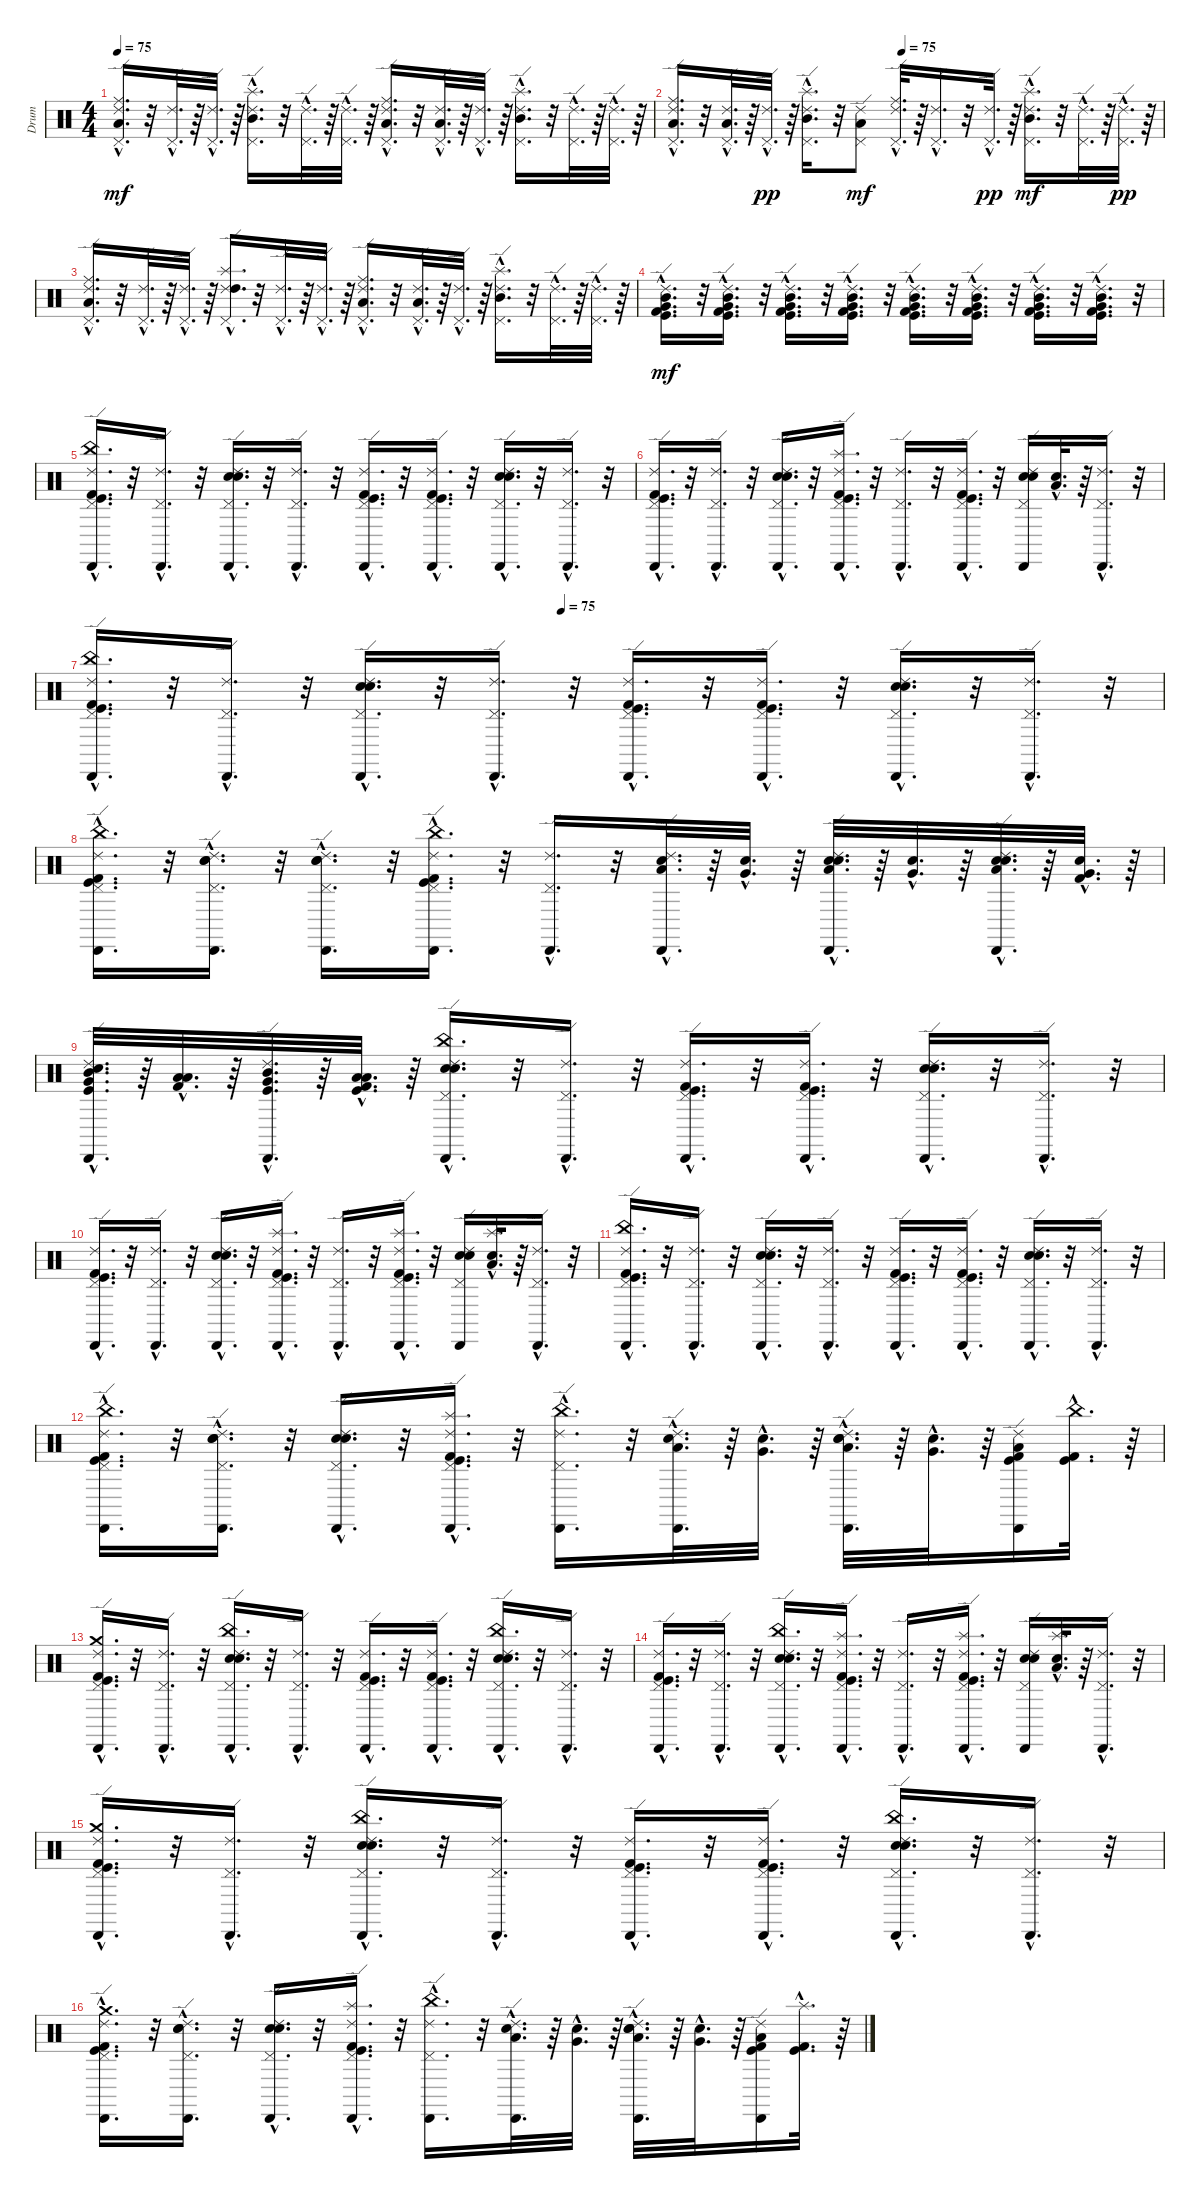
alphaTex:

\track ("Drum" "Drum") {instrument percussion}
\staff {score}
\articulation defaults
\ts (4 4)
\tempo 75
\clef neutral
\ks c
("Low Tom (hit)"{hac} "Pedal Hi-Hat (hit)"{hac} "Ride (edge) 2"{hac} "Ride (middle)"{hac}).16{d dy mf} r.32 ("Pedal Hi-Hat (hit)"{hac} "Ride (edge) 2"{hac}).32{d} r.64 ("Pedal Hi-Hat (hit)"{hac} "Ride (edge) 2"{hac}).32{d} r.64 ("Mid Tom (hit)"{hac} "Splash (hit)"{hac} "Pedal Hi-Hat (hit)"{hac} "Ride (edge) 2"{hac}).16{d} r.32 ("Pedal Hi-Hat (hit)"{hac} "Ride (edge) 2"{hac}).32{d} r.64 ("Pedal Hi-Hat (hit)"{hac} "Ride (edge) 2"{hac}).32{d} r.64 ("Low Tom (hit)"{hac} "Pedal Hi-Hat (hit)"{hac} "Ride (edge) 2"{hac} "Ride (middle)"{hac}).16{d} r.32 ("Low Tom (hit)"{hac} "Pedal Hi-Hat (hit)"{hac} "Ride (edge) 2"{hac}).32{d} r.64 ("Pedal Hi-Hat (hit)"{hac} "Ride (edge) 2"{hac}).32{d} r.64 ("Mid Tom (hit)"{hac} "Splash (hit)"{hac} "Pedal Hi-Hat (hit)"{hac} "Ride (edge) 2"{hac}).16{d} r.32 ("Pedal Hi-Hat (hit)"{hac} "Ride (edge) 2"{hac}).32{d} r.64 ("Pedal Hi-Hat (hit)"{hac} "Ride (edge) 2"{hac}).32{d} r.64 |
\tempo (75 0.46875)
("Low Tom (hit)"{hac} "Pedal Hi-Hat (hit)"{hac} "Ride (edge) 2"{hac} "Ride (middle)"{hac}).16{d} r.32 ("Pedal Hi-Hat (hit)"{hac} "Ride (edge) 2"{hac} "Low Tom (hit)"{hac}).32{d} r.64 ("Ride (edge) 2"{hac} "Pedal Hi-Hat (hit)"{hac}).32{d dy pp} r.64 ("Mid Tom (hit)"{hac} "Ride (edge) 2"{hac} "Pedal Hi-Hat (hit)"{hac} "Splash (hit)"{hac}).16{d} r.32 ("Pedal Hi-Hat (hit)" "Low Tom (hit)" "Ride (edge) 2").8{dy mf} ("Pedal Hi-Hat (hit)"{hac} "Ride (edge) 2"{hac} "Ride (middle)"{hac}).32{d} r.64 ("Pedal Hi-Hat (hit)"{hac} "Ride (edge) 2"{hac}).16{d} r.32 ("Ride (edge) 2"{hac} "Pedal Hi-Hat (hit)"{hac}).32{d dy pp} r.64 ("Pedal Hi-Hat (hit)"{hac} "Splash (hit)"{hac} "Mid Tom (hit)"{hac} "Ride (edge) 2"{hac}).16{d dy mf} r.32 ("Pedal Hi-Hat (hit)"{hac} "Ride (edge) 2"{hac}).32{d} r.64 ("Ride (edge) 2"{hac} "Pedal Hi-Hat (hit)"{hac}).32{d dy pp} r.64 |
("Ride (edge) 2"{hac} "Pedal Hi-Hat (hit)"{hac} "Low Tom (hit)"{hac} "Ride (middle)"{hac}).16{d} r.32 ("Ride (edge) 2"{hac} "Pedal Hi-Hat (hit)"{hac}).32{d} r.64 ("Ride (edge) 2"{hac} "Pedal Hi-Hat (hit)"{hac}).32{d} r.64 ("Ride (edge) 2"{hac} "Pedal Hi-Hat (hit)"{hac} "Splash (hit)"{hac} "High Tom (hit)"{hac}).16{d} r.32 ("Ride (edge) 2"{hac} "Pedal Hi-Hat (hit)"{hac}).32{d} r.64 ("Ride (edge) 2"{hac} "Pedal Hi-Hat (hit)"{hac}).32{d} r.64 ("Ride (edge) 2"{hac} "Pedal Hi-Hat (hit)"{hac} "Low Tom (hit)"{hac} "Ride (middle)"{hac}).16{d} r.32 ("Ride (edge) 2"{hac} "Pedal Hi-Hat (hit)"{hac} "Low Tom (hit)"{hac}).32{d} r.64 ("Ride (edge) 2"{hac} "Pedal Hi-Hat (hit)"{hac}).32{d} r.64 ("Ride (edge) 2"{hac} "Pedal Hi-Hat (hit)"{hac} "Splash (hit)"{hac} "Mid Tom (hit)"{hac}).16{d} r.32 ("Ride (edge) 2"{hac} "Pedal Hi-Hat (hit)"{hac}).32{d} r.64 ("Ride (edge) 2"{hac} "Pedal Hi-Hat (hit)"{hac}).32{d} r.64 |
("Ride (edge) 2"{hac} "Kick (hit)"{hac} "Mid Tom (hit)"{hac} "Kick (hit) 2"{hac} "Very Low Tom (hit)"{hac}).16{d dy mf} r.32 ("Mid Tom (hit)"{hac} "Ride (edge) 2"{hac} "Very Low Tom (hit)"{hac} "Kick (hit)"{hac} "Kick (hit) 2"{hac}).16{d} r.32 ("Kick (hit) 2"{hac} "Kick (hit)"{hac} "Very Low Tom (hit)"{hac} "Mid Tom (hit)"{hac} "Ride (edge) 2"{hac}).16{d} r.32 ("Kick (hit)"{hac} "Ride (edge) 2"{hac} "Mid Tom (hit)"{hac} "Very Low Tom (hit)"{hac} "Kick (hit) 2"{hac}).16{d} r.32 ("Mid Tom (hit)"{hac} "Very Low Tom (hit)"{hac} "Kick (hit) 2"{hac} "Kick (hit)"{hac} "Ride (edge) 2"{hac}).16{d} r.32 ("Kick (hit)"{hac} "Kick (hit) 2"{hac} "Ride (edge) 2"{hac} "Mid Tom (hit)"{hac} "Very Low Tom (hit)"{hac}).16{d} r.32 ("Ride (edge) 2"{hac} "Very Low Tom (hit)"{hac} "Mid Tom (hit)"{hac} "Kick (hit)"{hac} "Kick (hit) 2"{hac}).16{d} r.32 ("Kick (hit)"{hac} "Ride (edge) 2"{hac} "Kick (hit) 2"{hac} "Very Low Tom (hit)"{hac} "Mid Tom (hit)"{hac}).16{d} r.32 |
("Ride (edge) 2"{hac} "Cabasa (hit)"{hac} "Pedal Hi-Hat (hit)"{hac} "Kick (hit)"{hac} "Kick (hit) 2"{hac} "China (hit)"{hac}).16{d} r.32 ("Ride (edge) 2"{hac} "Cabasa (hit)"{hac} "Pedal Hi-Hat (hit)"{hac}).16{d} r.32 ("Ride (edge) 2"{hac} "Cabasa (hit)"{hac} "Pedal Hi-Hat (hit)"{hac} "Snare (hit) 2"{hac} "Electric Snare (hit)"{hac}).16{d} r.32 ("Ride (edge) 2"{hac} "Cabasa (hit)"{hac} "Pedal Hi-Hat (hit)"{hac}).16{d} r.32 ("Ride (edge) 2"{hac} "Cabasa (hit)"{hac} "Pedal Hi-Hat (hit)"{hac} "Kick (hit)"{hac} "Kick (hit) 2"{hac}).16{d} r.32 ("Ride (edge) 2"{hac} "Cabasa (hit)"{hac} "Pedal Hi-Hat (hit)"{hac} "Kick (hit)"{hac} "Kick (hit) 2"{hac}).16{d} r.32 ("Ride (edge) 2"{hac} "Cabasa (hit)"{hac} "Pedal Hi-Hat (hit)"{hac} "Snare (hit) 2"{hac} "Electric Snare (hit)"{hac}).16{d} r.32 ("Ride (edge) 2"{hac} "Cabasa (hit)"{hac} "Pedal Hi-Hat (hit)"{hac}).16{d} r.32 |
("Kick (hit) 2"{hac} "Kick (hit)"{hac} "Pedal Hi-Hat (hit)"{hac} "Cabasa (hit)"{hac} "Ride (edge) 2"{hac}).16{d} r.32 ("Pedal Hi-Hat (hit)"{hac} "Cabasa (hit)"{hac} "Ride (edge) 2"{hac}).16{d} r.32 ("Electric Snare (hit)"{hac} "Snare (hit) 2"{hac} "Pedal Hi-Hat (hit)"{hac} "Cabasa (hit)"{hac} "Ride (edge) 2"{hac}).16{d} r.32 ("Pedal Hi-Hat (hit)"{hac} "Cabasa (hit)"{hac} "Ride (edge) 2"{hac} "Kick (hit) 2"{hac} "Kick (hit)"{hac} "Splash (hit)"{hac}).16{d} r.32 ("Pedal Hi-Hat (hit)"{hac} "Cabasa (hit)"{hac} "Ride (edge) 2"{hac}).16{d} r.32 ("Kick (hit) 2"{hac} "Kick (hit)"{hac} "Pedal Hi-Hat (hit)"{hac} "Cabasa (hit)"{hac} "Ride (edge) 2"{hac}).16{d} r.32 ("Electric Snare (hit)" "Snare (hit) 2" "Pedal Hi-Hat (hit)" "Cabasa (hit)" "Ride (edge) 2").16 ("Electric Snare (hit)"{hac} "Low Tom (hit)"{hac}).32{d} r.64 ("Pedal Hi-Hat (hit)"{hac} "Ride (edge) 2"{hac} "Cabasa (hit)"{hac}).16{d} r.32 |
\tempo (75 0.4375)
("China (hit)"{hac} "Kick (hit) 2"{hac} "Kick (hit)"{hac} "Pedal Hi-Hat (hit)"{hac} "Cabasa (hit)"{hac} "Ride (edge) 2"{hac}).16{d} r.32 ("Pedal Hi-Hat (hit)"{hac} "Cabasa (hit)"{hac} "Ride (edge) 2"{hac}).16{d} r.32 ("Electric Snare (hit)"{hac} "Snare (hit) 2"{hac} "Pedal Hi-Hat (hit)"{hac} "Cabasa (hit)"{hac} "Ride (edge) 2"{hac}).16{d} r.32 ("Pedal Hi-Hat (hit)"{hac} "Cabasa (hit)"{hac} "Ride (edge) 2"{hac}).16{d} r.32 ("Kick (hit) 2"{hac} "Kick (hit)"{hac} "Pedal Hi-Hat (hit)"{hac} "Cabasa (hit)"{hac} "Ride (edge) 2"{hac}).16{d} r.32 ("Kick (hit) 2"{hac} "Kick (hit)"{hac} "Pedal Hi-Hat (hit)"{hac} "Cabasa (hit)"{hac} "Ride (edge) 2"{hac}).16{d} r.32 ("Electric Snare (hit)"{hac} "Snare (hit) 2"{hac} "Pedal Hi-Hat (hit)"{hac} "Cabasa (hit)"{hac} "Ride (edge) 2"{hac}).16{d} r.32 ("Pedal Hi-Hat (hit)"{hac} "Cabasa (hit)"{hac} "Ride (edge) 2"{hac}).16{d} r.32 |
("Ride (edge) 2"{hac} "Cabasa (hit)"{hac} "Pedal Hi-Hat (hit)"{hac} "Kick (hit)"{hac} "Kick (hit) 2"{hac} "China (hit)"{hac}).16{d} r.32 ("Ride (edge) 2"{hac} "Cabasa (hit)"{hac} "Pedal Hi-Hat (hit)"{hac} "Electric Snare (hit)"{hac} "Snare (hit) 2"{hac}).16{d} r.32 ("Ride (edge) 2"{hac} "Cabasa (hit)"{hac} "Pedal Hi-Hat (hit)"{hac} "Snare (hit) 2"{hac} "Electric Snare (hit)"{hac}).16{d} r.32 ("Kick (hit)"{hac} "Kick (hit) 2"{hac} "Ride (edge) 2"{hac} "Cabasa (hit)"{hac} "Pedal Hi-Hat (hit)"{hac} "China (hit)"{hac}).16{d} r.32 ("Ride (edge) 2"{hac} "Cabasa (hit)"{hac} "Pedal Hi-Hat (hit)"{hac}).16{d} r.32 ("Electric Snare (hit)"{hac} "Ride (edge) 2"{hac} "Cabasa (hit)"{hac} "Low Tom (hit)"{hac}).32{d} r.64 ("Snare (hit) 2"{hac} "Very Low Tom (hit)"{hac}).32{d} r.64 ("Electric Snare (hit)"{hac} "Ride (edge) 2"{hac} "Cabasa (hit)"{hac} "Low Tom (hit)"{hac} "Snare (hit) 2"{hac}).32{d} r.64 ("Snare (hit) 2"{hac} "Very Low Tom (hit)"{hac}).32{d} r.64 ("Electric Snare (hit)"{hac} "Snare (hit) 2"{hac} "Ride (edge) 2"{hac} "Cabasa (hit)"{hac} "Low Tom (hit)"{hac}).32{d} r.64 ("Very Low Tom (hit)"{hac} "Snare (hit) 2"{hac} "Kick (hit) 2"{hac}).32{d} r.64 |
("Mid Tom (hit)"{hac} "Snare (hit) 2"{hac} "Cabasa (hit)"{hac} "Ride (edge) 2"{hac} "Very Low Tom (hit)"{hac} "Kick (hit)"{hac}).32{d} r.64 ("Kick (hit) 2"{hac} "Low Tom (hit)"{hac} "Low Floor Tom (hit)"{hac}).32{d} r.64 ("Mid Tom (hit)"{hac} "Kick (hit)"{hac} "Cabasa (hit)"{hac} "Ride (edge) 2"{hac} "Very Low Tom (hit)"{hac}).32{d} r.64 ("Low Tom (hit)"{hac} "Low Floor Tom (hit)"{hac} "Kick (hit)"{hac} "Kick (hit) 2"{hac}).32{d} r.64 ("Electric Snare (hit)"{hac} "Snare (hit) 2"{hac} "Cabasa (hit)"{hac} "Pedal Hi-Hat (hit)"{hac} "China (hit)"{hac} "Ride (edge) 2"{hac}).16{d} r.32 ("Cabasa (hit)"{hac} "Pedal Hi-Hat (hit)"{hac} "Ride (edge) 2"{hac}).16{d} r.32 ("Kick (hit)"{hac} "Kick (hit) 2"{hac} "Cabasa (hit)"{hac} "Pedal Hi-Hat (hit)"{hac} "Ride (edge) 2"{hac}).16{d} r.32 ("Kick (hit) 2"{hac} "Kick (hit)"{hac} "Cabasa (hit)"{hac} "Pedal Hi-Hat (hit)"{hac} "Ride (edge) 2"{hac}).16{d} r.32 ("Electric Snare (hit)"{hac} "Snare (hit) 2"{hac} "Cabasa (hit)"{hac} "Pedal Hi-Hat (hit)"{hac} "Ride (edge) 2"{hac}).16{d} r.32 ("Cabasa (hit)"{hac} "Pedal Hi-Hat (hit)"{hac} "Ride (edge) 2"{hac}).16{d} r.32 |
("Ride (edge) 2"{hac} "Cabasa (hit)"{hac} "Pedal Hi-Hat (hit)"{hac} "Kick (hit)"{hac} "Kick (hit) 2"{hac}).16{d} r.32 ("Ride (edge) 2"{hac} "Cabasa (hit)"{hac} "Pedal Hi-Hat (hit)"{hac}).16{d} r.32 ("Ride (edge) 2"{hac} "Cabasa (hit)"{hac} "Pedal Hi-Hat (hit)"{hac} "Snare (hit) 2"{hac} "Electric Snare (hit)"{hac}).16{d} r.32 ("Splash (hit)"{hac} "Kick (hit)"{hac} "Kick (hit) 2"{hac} "Ride (edge) 2"{hac} "Cabasa (hit)"{hac} "Pedal Hi-Hat (hit)"{hac}).16{d} r.32 ("Ride (edge) 2"{hac} "Cabasa (hit)"{hac} "Pedal Hi-Hat (hit)"{hac}).16{d} r.32 ("Ride (edge) 2"{hac} "Cabasa (hit)"{hac} "Pedal Hi-Hat (hit)"{hac} "Kick (hit)"{hac} "Kick (hit) 2"{hac} "Splash (hit)"{hac}).16{d} r.32 ("Ride (edge) 2" "Cabasa (hit)" "Pedal Hi-Hat (hit)" "Snare (hit) 2" "Electric Snare (hit)").16 ("Low Tom (hit)"{hac} "Electric Snare (hit)"{hac} "Splash (hit)"{hac}).32{d} r.64 ("Cabasa (hit)"{hac} "Ride (edge) 2"{hac} "Pedal Hi-Hat (hit)"{hac}).16{d} r.32 |
("Ride (edge) 2"{hac} "Cabasa (hit)"{hac} "Pedal Hi-Hat (hit)"{hac} "Kick (hit)"{hac} "Kick (hit) 2"{hac} "China (hit)"{hac}).16{d} r.32 ("Ride (edge) 2"{hac} "Cabasa (hit)"{hac} "Pedal Hi-Hat (hit)"{hac}).16{d} r.32 ("Ride (edge) 2"{hac} "Cabasa (hit)"{hac} "Pedal Hi-Hat (hit)"{hac} "Snare (hit) 2"{hac} "Electric Snare (hit)"{hac}).16{d} r.32 ("Ride (edge) 2"{hac} "Cabasa (hit)"{hac} "Pedal Hi-Hat (hit)"{hac}).16{d} r.32 ("Ride (edge) 2"{hac} "Cabasa (hit)"{hac} "Pedal Hi-Hat (hit)"{hac} "Kick (hit)"{hac} "Kick (hit) 2"{hac}).16{d} r.32 ("Ride (edge) 2"{hac} "Cabasa (hit)"{hac} "Pedal Hi-Hat (hit)"{hac} "Kick (hit)"{hac} "Kick (hit) 2"{hac}).16{d} r.32 ("Ride (edge) 2"{hac} "Cabasa (hit)"{hac} "Pedal Hi-Hat (hit)"{hac} "Snare (hit) 2"{hac} "Electric Snare (hit)"{hac}).16{d} r.32 ("Ride (edge) 2"{hac} "Cabasa (hit)"{hac} "Pedal Hi-Hat (hit)"{hac}).16{d} r.32 |
("China (hit)"{hac} "Kick (hit) 2"{hac} "Kick (hit)"{hac} "Pedal Hi-Hat (hit)"{hac} "Cabasa (hit)"{hac} "Ride (edge) 2"{hac}).16{d} r.32 ("Snare (hit) 2"{hac} "Electric Snare (hit)"{hac} "Pedal Hi-Hat (hit)"{hac} "Cabasa (hit)"{hac} "Ride (edge) 2"{hac}).16{d} r.32 ("Electric Snare (hit)"{hac} "Snare (hit) 2"{hac} "Pedal Hi-Hat (hit)"{hac} "Cabasa (hit)"{hac} "Ride (edge) 2"{hac}).16{d} r.32 ("Pedal Hi-Hat (hit)"{hac} "Cabasa (hit)"{hac} "Ride (edge) 2"{hac} "Kick (hit) 2"{hac} "Kick (hit)"{hac} "Splash (hit)"{hac}).16{d} r.32 ("Pedal Hi-Hat (hit)"{hac} "Cabasa (hit)"{hac} "Ride (edge) 2"{hac} "China (hit)"{hac}).16{d} r.32 ("Low Tom (hit)"{hac} "Cabasa (hit)"{hac} "Ride (edge) 2"{hac} "Electric Snare (hit)"{hac}).32{d} r.64 ("Very Low Tom (hit)"{hac} "Snare (hit) 2"{hac}).32{d} r.64 ("Snare (hit) 2"{hac} "Low Tom (hit)"{hac} "Cabasa (hit)"{hac} "Ride (edge) 2"{hac} "Electric Snare (hit)"{hac}).32{d} r.64 ("Very Low Tom (hit)"{hac} "Snare (hit) 2"{hac}).32{d} r.64 ("Low Floor Tom (hit)" "Cabasa (hit)" "Ride (edge) 2" "Kick (hit) 2" "Kick (hit)").16 ("China (hit)"{hac} "Kick (hit) 2"{hac} "Kick (hit)"{hac}).32{d} r.64 |
("Crash medium (hit)"{hac} "Kick (hit) 2"{hac} "Kick (hit)"{hac} "Pedal Hi-Hat (hit)"{hac} "Cabasa (hit)"{hac} "Ride (edge) 2"{hac}).16{d} r.32 ("Pedal Hi-Hat (hit)"{hac} "Cabasa (hit)"{hac} "Ride (edge) 2"{hac}).16{d} r.32 ("Ride (edge) 2"{hac} "China (hit)"{hac} "Electric Snare (hit)"{hac} "Snare (hit) 2"{hac} "Pedal Hi-Hat (hit)"{hac} "Cabasa (hit)"{hac}).16{d} r.32 ("Pedal Hi-Hat (hit)"{hac} "Cabasa (hit)"{hac} "Ride (edge) 2"{hac}).16{d} r.32 ("Kick (hit) 2"{hac} "Kick (hit)"{hac} "Pedal Hi-Hat (hit)"{hac} "Cabasa (hit)"{hac} "Ride (edge) 2"{hac}).16{d} r.32 ("Kick (hit) 2"{hac} "Kick (hit)"{hac} "Pedal Hi-Hat (hit)"{hac} "Cabasa (hit)"{hac} "Ride (edge) 2"{hac}).16{d} r.32 ("China (hit)"{hac} "Electric Snare (hit)"{hac} "Snare (hit) 2"{hac} "Pedal Hi-Hat (hit)"{hac} "Cabasa (hit)"{hac} "Ride (edge) 2"{hac}).16{d} r.32 ("Pedal Hi-Hat (hit)"{hac} "Cabasa (hit)"{hac} "Ride (edge) 2"{hac}).16{d} r.32 |
("Kick (hit) 2"{hac} "Kick (hit)"{hac} "Pedal Hi-Hat (hit)"{hac} "Cabasa (hit)"{hac} "Ride (edge) 2"{hac}).16{d} r.32 ("Pedal Hi-Hat (hit)"{hac} "Cabasa (hit)"{hac} "Ride (edge) 2"{hac}).16{d} r.32 ("Ride (edge) 2"{hac} "China (hit)"{hac} "Electric Snare (hit)"{hac} "Snare (hit) 2"{hac} "Pedal Hi-Hat (hit)"{hac} "Cabasa (hit)"{hac}).16{d} r.32 ("Pedal Hi-Hat (hit)"{hac} "Cabasa (hit)"{hac} "Ride (edge) 2"{hac} "Kick (hit) 2"{hac} "Kick (hit)"{hac} "Splash (hit)"{hac}).16{d} r.32 ("Pedal Hi-Hat (hit)"{hac} "Cabasa (hit)"{hac} "Ride (edge) 2"{hac}).16{d} r.32 ("Splash (hit)"{hac} "Kick (hit) 2"{hac} "Kick (hit)"{hac} "Pedal Hi-Hat (hit)"{hac} "Cabasa (hit)"{hac} "Ride (edge) 2"{hac}).16{d} r.32 ("Electric Snare (hit)" "Snare (hit) 2" "Pedal Hi-Hat (hit)" "Cabasa (hit)" "Ride (edge) 2").16 ("Splash (hit)"{hac} "Electric Snare (hit)"{hac} "Low Tom (hit)"{hac}).32{d} r.64 ("Pedal Hi-Hat (hit)"{hac} "Ride (edge) 2"{hac} "Cabasa (hit)"{hac}).16{d} r.32 |
("Crash medium (hit)"{hac} "Kick (hit) 2"{hac} "Kick (hit)"{hac} "Pedal Hi-Hat (hit)"{hac} "Cabasa (hit)"{hac} "Ride (edge) 2"{hac}).16{d} r.32 ("Pedal Hi-Hat (hit)"{hac} "Cabasa (hit)"{hac} "Ride (edge) 2"{hac}).16{d} r.32 ("Ride (edge) 2"{hac} "China (hit)"{hac} "Electric Snare (hit)"{hac} "Snare (hit) 2"{hac} "Pedal Hi-Hat (hit)"{hac} "Cabasa (hit)"{hac}).16{d} r.32 ("Pedal Hi-Hat (hit)"{hac} "Cabasa (hit)"{hac} "Ride (edge) 2"{hac}).16{d} r.32 ("Kick (hit) 2"{hac} "Kick (hit)"{hac} "Pedal Hi-Hat (hit)"{hac} "Cabasa (hit)"{hac} "Ride (edge) 2"{hac}).16{d} r.32 ("Kick (hit) 2"{hac} "Kick (hit)"{hac} "Pedal Hi-Hat (hit)"{hac} "Cabasa (hit)"{hac} "Ride (edge) 2"{hac}).16{d} r.32 ("China (hit)"{hac} "Electric Snare (hit)"{hac} "Snare (hit) 2"{hac} "Pedal Hi-Hat (hit)"{hac} "Cabasa (hit)"{hac} "Ride (edge) 2"{hac}).16{d} r.32 ("Pedal Hi-Hat (hit)"{hac} "Cabasa (hit)"{hac} "Ride (edge) 2"{hac}).16{d} r.32 |
("Ride (edge) 2"{hac} "Cabasa (hit)"{hac} "Pedal Hi-Hat (hit)"{hac} "Kick (hit)"{hac} "Kick (hit) 2"{hac} "Crash medium (hit)"{hac}).16{d} r.32 ("Ride (edge) 2"{hac} "Cabasa (hit)"{hac} "Pedal Hi-Hat (hit)"{hac} "Electric Snare (hit)"{hac} "Snare (hit) 2"{hac}).16{d} r.32 ("Ride (edge) 2"{hac} "Cabasa (hit)"{hac} "Pedal Hi-Hat (hit)"{hac} "Snare (hit) 2"{hac} "Electric Snare (hit)"{hac}).16{d} r.32 ("Splash (hit)"{hac} "Kick (hit)"{hac} "Kick (hit) 2"{hac} "Ride (edge) 2"{hac} "Cabasa (hit)"{hac} "Pedal Hi-Hat (hit)"{hac}).16{d} r.32 ("China (hit)"{hac} "Ride (edge) 2"{hac} "Cabasa (hit)"{hac} "Pedal Hi-Hat (hit)"{hac}).16{d} r.32 ("Electric Snare (hit)"{hac} "Ride (edge) 2"{hac} "Cabasa (hit)"{hac} "Low Tom (hit)"{hac}).32{d} r.64 ("Snare (hit) 2"{hac} "Very Low Tom (hit)"{hac}).32{d} r.64 ("Electric Snare (hit)"{hac} "Ride (edge) 2"{hac} "Cabasa (hit)"{hac} "Low Tom (hit)"{hac} "Snare (hit) 2"{hac}).32{d} r.64 ("Snare (hit) 2"{hac} "Very Low Tom (hit)"{hac}).32{d} r.64 ("Kick (hit)" "Kick (hit) 2" "Ride (edge) 2" "Cabasa (hit)" "Low Floor Tom (hit)").16 ("Splash (hit)"{hac} "Kick (hit)"{hac} "Kick (hit) 2"{hac}).32{d} r.64
